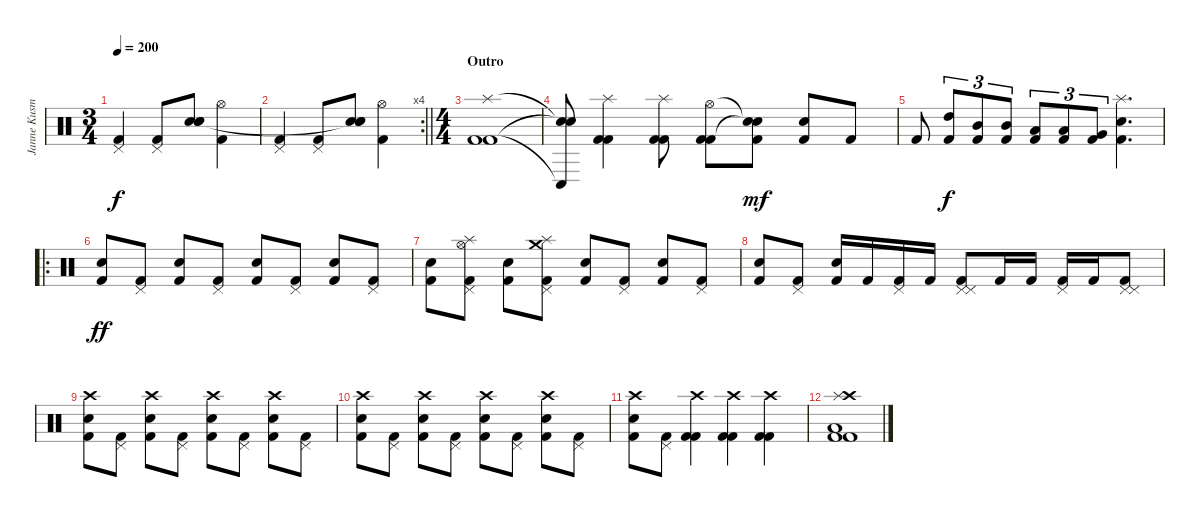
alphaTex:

\track ("Janne Kusmin" "Janne Kusm") {instrument percussion}
\staff {score}
\articulation defaults
\ts (3 4)
\tempo 200
\clef neutral
\ks c
("Pedal Hi-Hat (hit)" "Kick (hit) 2").4{dy f} ("Pedal Hi-Hat (hit)" "Kick (hit) 2").8 ("Snare (hit) 2" "Snare (hit) 2" "Snare (hit) 2"{t}).8 ("Hi-Hat (open)" "Kick (hit) 2").4 |
\rc 4
\barLineRight lightlight
("Pedal Hi-Hat (hit)" "Kick (hit) 2").4 ("Pedal Hi-Hat (hit)" "Kick (hit) 2").8 ("Snare (hit) 2" "Snare (hit) 2" "Snare (hit) 2"{t}).8 ("Hi-Hat (open)" "Kick (hit) 2").4 |
\ts (4 4)
\section ("" "Outro")
("Splash (hit)" "Kick (hit) 2" "Kick (hit) 2").1 |
("Snare (hit)"{t} "Snare (hit)"{t} "Conga low (hit)"{t}).8 ("Splash (hit)" "Kick (hit) 2" "Kick (hit) 2").4 ("Splash (hit)" "Kick (hit) 2" "Kick (hit) 2").8 ("Hi-Hat (open)" "Kick (hit) 2" "Kick (hit) 2").8 ("Snare (hit)"{t} "Snare (hit)"{t} "Kick (hit) 2").8{dy mf} ("Snare (hit) 2" "Kick (hit) 2").8 "Kick (hit) 2".8 |
"Kick (hit) 2".8 ("High Tom (hit)" "Kick (hit) 2").8{tu (3 2) dy f} ("Mid Tom (hit)" "Kick (hit) 2").8{tu (3 2)} ("Mid Tom (hit)" "Kick (hit) 2").8{tu (3 2)} ("Low Tom (hit)" "Kick (hit) 2").8{tu (3 2)} ("Low Tom (hit)" "Kick (hit) 2").8{tu (3 2)} ("Very Low Tom (hit)" "Kick (hit) 2").8{tu (3 2)} ("Splash (hit)" "Snare (hit) 2" "Kick (hit) 2").4{d} |
\ro
("Snare (hit) 2" "Kick (hit) 2").8{dy ff} ("Pedal Hi-Hat (hit)" "Kick (hit) 2").8 ("Snare (hit) 2" "Kick (hit) 2").8 ("Pedal Hi-Hat (hit)" "Kick (hit) 2").8 ("Snare (hit) 2" "Kick (hit) 2").8 ("Pedal Hi-Hat (hit)" "Kick (hit) 2").8 ("Snare (hit) 2" "Kick (hit) 2").8 ("Pedal Hi-Hat (hit)" "Kick (hit) 2").8 |
("Snare (hit) 2" "Kick (hit) 2").8 ("Splash (hit)" "Hi-Hat (open)" "Pedal Hi-Hat (hit)" "Kick (hit) 2").8 ("Snare (hit) 2" "Kick (hit) 2").8 ("Crash medium (hit)" "Splash (hit)" "Pedal Hi-Hat (hit)" "Kick (hit) 2").8 ("Snare (hit) 2" "Kick (hit) 2").8 ("Pedal Hi-Hat (hit)" "Kick (hit) 2").8 ("Snare (hit) 2" "Kick (hit) 2").8 ("Pedal Hi-Hat (hit)" "Kick (hit) 2").8 |
("Snare (hit) 2" "Kick (hit) 2").8 ("Pedal Hi-Hat (hit)" "Kick (hit) 2").8 ("Snare (hit) 2" "Kick (hit) 2").16 "Kick (hit) 2".16 ("Pedal Hi-Hat (hit)" "Kick (hit) 2").16 "Kick (hit) 2".16 ("Pedal Hi-Hat (hit)" "Pedal Hi-Hat (hit)" "Kick (hit) 2").8 "Kick (hit) 2".16 "Kick (hit) 2".16 ("Pedal Hi-Hat (hit)" "Kick (hit) 2").16 "Kick (hit) 2".16 ("Pedal Hi-Hat (hit)" "Pedal Hi-Hat (hit)" "Kick (hit) 2").8 |
("Crash high (hit)" "Snare (hit) 2" "Kick (hit) 2").8 ("Pedal Hi-Hat (hit)" "Kick (hit) 2").8 ("Crash high (hit)" "Snare (hit) 2" "Kick (hit) 2").8 ("Pedal Hi-Hat (hit)" "Kick (hit) 2").8 ("Crash high (hit)" "Snare (hit) 2" "Kick (hit) 2").8 ("Pedal Hi-Hat (hit)" "Kick (hit) 2").8 ("Crash high (hit)" "Snare (hit) 2" "Kick (hit) 2").8 ("Pedal Hi-Hat (hit)" "Kick (hit) 2").8 |
("Crash high (hit)" "Snare (hit) 2" "Kick (hit) 2").8 ("Pedal Hi-Hat (hit)" "Kick (hit) 2").8 ("Crash high (hit)" "Snare (hit) 2" "Kick (hit) 2").8 ("Pedal Hi-Hat (hit)" "Kick (hit) 2").8 ("Crash high (hit)" "Snare (hit) 2" "Kick (hit) 2").8 ("Pedal Hi-Hat (hit)" "Kick (hit) 2").8 ("Crash high (hit)" "Snare (hit) 2" "Kick (hit) 2").8 ("Pedal Hi-Hat (hit)" "Kick (hit) 2").8 |
("Crash high (hit)" "Snare (hit) 2" "Kick (hit) 2").8 ("Pedal Hi-Hat (hit)" "Kick (hit) 2").8 ("Crash high (hit)" "Kick (hit) 2" "Kick (hit) 2").4 ("Crash high (hit)" "Kick (hit) 2" "Kick (hit) 2").4 ("Crash high (hit)" "Kick (hit) 2" "Kick (hit) 2").4 |
("Splash (hit)" "Crash high (hit)" "Low Floor Tom (hit)" "Kick (hit) 2" "Kick (hit) 2").1
